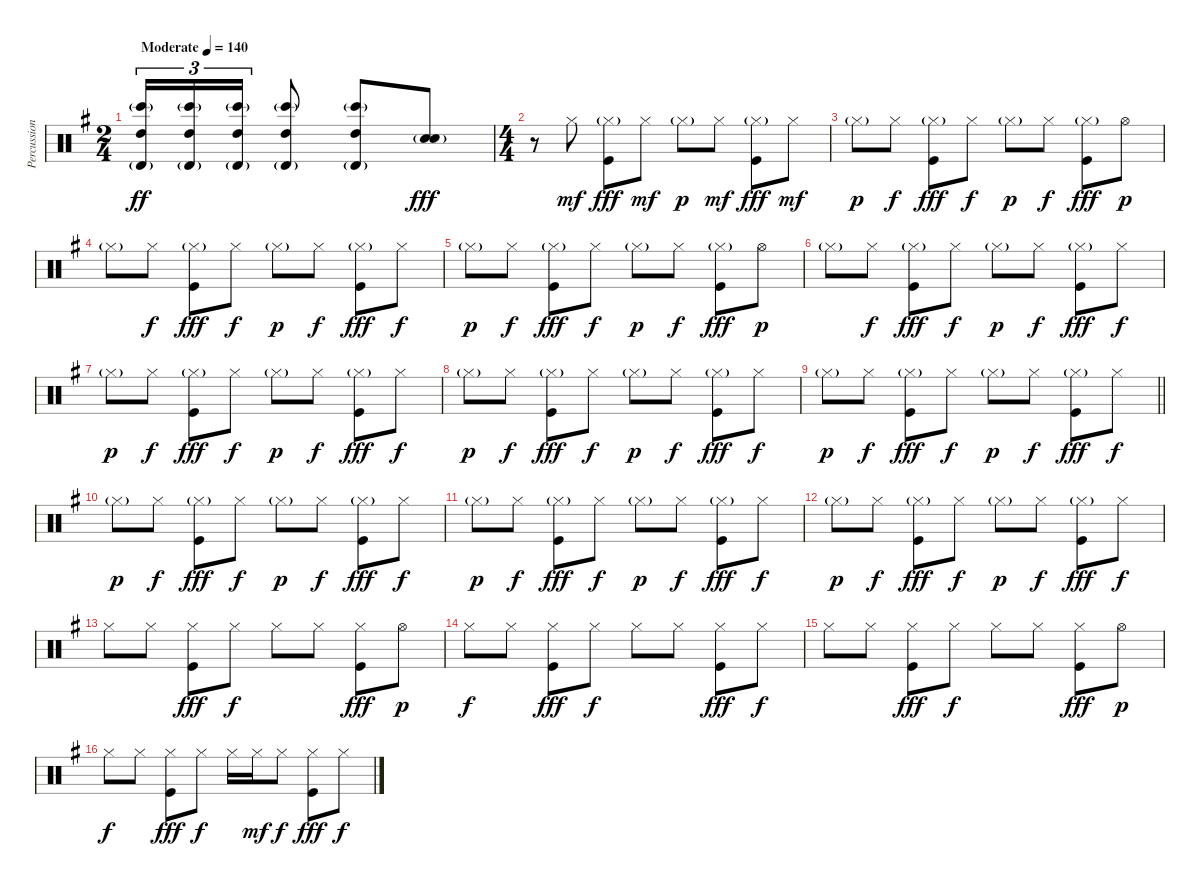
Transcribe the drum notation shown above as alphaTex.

\track ("Percussioni" "Percussion") {instrument percussion}
\staff {score}
\articulation defaults
\ts (2 4)
\section ("" "")
\tempo (140 "Moderate")
\clef neutral
\ks eminor
("Timbale high (hit)"{g} "Bongo High (hit)"{g} "High Tom (hit)").16{tu (3 2) dy ff} ("Timbale high (hit)"{g} "Bongo High (hit)"{g} "High Tom (hit)").16{tu (3 2)} ("Timbale high (hit)"{g} "Bongo High (hit)"{g} "High Tom (hit)").16{tu (3 2)} ("Timbale high (hit)"{g} "Bongo High (hit)"{g} "High Tom (hit)").8 ("Timbale high (hit)"{g} "Bongo High (hit)"{g} "High Tom (hit)").8 ("Electric Snare (hit)" "Snare (hit) 2"{g}).8{bd 30 dy fff} |
\ts (4 4)
r.8 "Hi-Hat (closed)".8{dy mf} ("Hi-Hat (closed)"{g} "Kick (hit)").8{dy fff} "Hi-Hat (closed)".8{dy mf} "Hi-Hat (closed)"{g}.8{dy p} "Hi-Hat (closed)".8{dy mf} ("Hi-Hat (closed)"{g} "Kick (hit)").8{dy fff} "Hi-Hat (closed)".8{dy mf} |
"Hi-Hat (closed)"{g}.8{dy p} "Hi-Hat (closed)".8{dy f} ("Hi-Hat (closed)"{g} "Kick (hit)").8{dy fff} "Hi-Hat (closed)".8{dy f} "Hi-Hat (closed)"{g}.8{dy p} "Hi-Hat (closed)".8{dy f} ("Hi-Hat (closed)"{g} "Kick (hit)").8{dy fff} "Hi-Hat (open)".8{dy p} |
"Hi-Hat (closed)"{g}.8 "Hi-Hat (closed)".8{dy f} ("Hi-Hat (closed)"{g} "Kick (hit)").8{dy fff} "Hi-Hat (closed)".8{dy f} "Hi-Hat (closed)"{g}.8{dy p} "Hi-Hat (closed)".8{dy f} ("Hi-Hat (closed)"{g} "Kick (hit)").8{dy fff} "Hi-Hat (closed)".8{dy f} |
"Hi-Hat (closed)"{g}.8{dy p} "Hi-Hat (closed)".8{dy f} ("Hi-Hat (closed)"{g} "Kick (hit)").8{dy fff} "Hi-Hat (closed)".8{dy f} "Hi-Hat (closed)"{g}.8{dy p} "Hi-Hat (closed)".8{dy f} ("Hi-Hat (closed)"{g} "Kick (hit)").8{dy fff} "Hi-Hat (open)".8{dy p} |
"Hi-Hat (closed)"{g}.8 "Hi-Hat (closed)".8{dy f} ("Hi-Hat (closed)"{g} "Kick (hit)").8{dy fff} "Hi-Hat (closed)".8{dy f} "Hi-Hat (closed)"{g}.8{dy p} "Hi-Hat (closed)".8{dy f} ("Hi-Hat (closed)"{g} "Kick (hit)").8{dy fff} "Hi-Hat (closed)".8{dy f} |
"Hi-Hat (closed)"{g}.8{dy p} "Hi-Hat (closed)".8{dy f} ("Hi-Hat (closed)"{g} "Kick (hit)").8{dy fff} "Hi-Hat (closed)".8{dy f} "Hi-Hat (closed)"{g}.8{dy p} "Hi-Hat (closed)".8{dy f} ("Hi-Hat (closed)"{g} "Kick (hit)").8{dy fff} "Hi-Hat (closed)".8{dy f} |
"Hi-Hat (closed)"{g}.8{dy p} "Hi-Hat (closed)".8{dy f} ("Hi-Hat (closed)"{g} "Kick (hit)").8{dy fff} "Hi-Hat (closed)".8{dy f} "Hi-Hat (closed)"{g}.8{dy p} "Hi-Hat (closed)".8{dy f} ("Hi-Hat (closed)"{g} "Kick (hit)").8{dy fff} "Hi-Hat (closed)".8{dy f} |
\barLineRight lightlight "Hi-Hat (closed)"{g}.8{dy p} "Hi-Hat (closed)".8{dy f}
("Hi-Hat (closed)"{g} "Kick (hit)").8{dy fff} "Hi-Hat (closed)".8{dy f} "Hi-Hat (closed)"{g}.8{dy p} "Hi-Hat (closed)".8{dy f} ("Hi-Hat (closed)"{g} "Kick (hit)").8{dy fff} "Hi-Hat (closed)".8{dy f} |
\section ("" "")
"Hi-Hat (closed)"{g}.8{dy p} "Hi-Hat (closed)".8{dy f} ("Hi-Hat (closed)"{g} "Kick (hit)").8{dy fff} "Hi-Hat (closed)".8{dy f} "Hi-Hat (closed)"{g}.8{dy p} "Hi-Hat (closed)".8{dy f} ("Hi-Hat (closed)"{g} "Kick (hit)").8{dy fff} "Hi-Hat (closed)".8{dy f} |
"Hi-Hat (closed)"{g}.8{dy p} "Hi-Hat (closed)".8{dy f} ("Hi-Hat (closed)"{g} "Kick (hit)").8{dy fff} "Hi-Hat (closed)".8{dy f} "Hi-Hat (closed)"{g}.8{dy p} "Hi-Hat (closed)".8{dy f} ("Hi-Hat (closed)"{g} "Kick (hit)").8{dy fff} "Hi-Hat (closed)".8{dy f} |
"Hi-Hat (closed)"{g}.8{dy p} "Hi-Hat (closed)".8{dy f} ("Hi-Hat (closed)"{g} "Kick (hit)").8{dy fff} "Hi-Hat (closed)".8{dy f} "Hi-Hat (closed)"{g}.8{dy p} "Hi-Hat (closed)".8{dy f} ("Hi-Hat (closed)"{g} "Kick (hit)").8{dy fff} "Hi-Hat (closed)".8{dy f} |
"Hi-Hat (closed)".8 "Hi-Hat (closed)".8 ("Hi-Hat (closed)" "Kick (hit)").8{dy fff} "Hi-Hat (closed)".8{dy f} "Hi-Hat (closed)".8 "Hi-Hat (closed)".8 ("Hi-Hat (closed)" "Kick (hit)").8{dy fff} "Hi-Hat (open)".8{dy p} |
"Hi-Hat (closed)".8{dy f} "Hi-Hat (closed)".8 ("Hi-Hat (closed)" "Kick (hit)").8{dy fff} "Hi-Hat (closed)".8{dy f} "Hi-Hat (closed)".8 "Hi-Hat (closed)".8 ("Hi-Hat (closed)" "Kick (hit)").8{dy fff} "Hi-Hat (closed)".8{dy f} |
"Hi-Hat (closed)".8 "Hi-Hat (closed)".8 ("Hi-Hat (closed)" "Kick (hit)").8{dy fff} "Hi-Hat (closed)".8{dy f} "Hi-Hat (closed)".8 "Hi-Hat (closed)".8 ("Hi-Hat (closed)" "Kick (hit)").8{dy fff} "Hi-Hat (open)".8{dy p} |
"Hi-Hat (closed)".8{dy f} "Hi-Hat (closed)".8 ("Hi-Hat (closed)" "Kick (hit)").8{dy fff} "Hi-Hat (closed)".8{dy f} "Hi-Hat (closed)".16 "Hi-Hat (closed)".16{dy mf} "Hi-Hat (closed)".8{dy f} ("Hi-Hat (closed)" "Kick (hit)").8{dy fff} "Hi-Hat (closed)".8{dy f}
